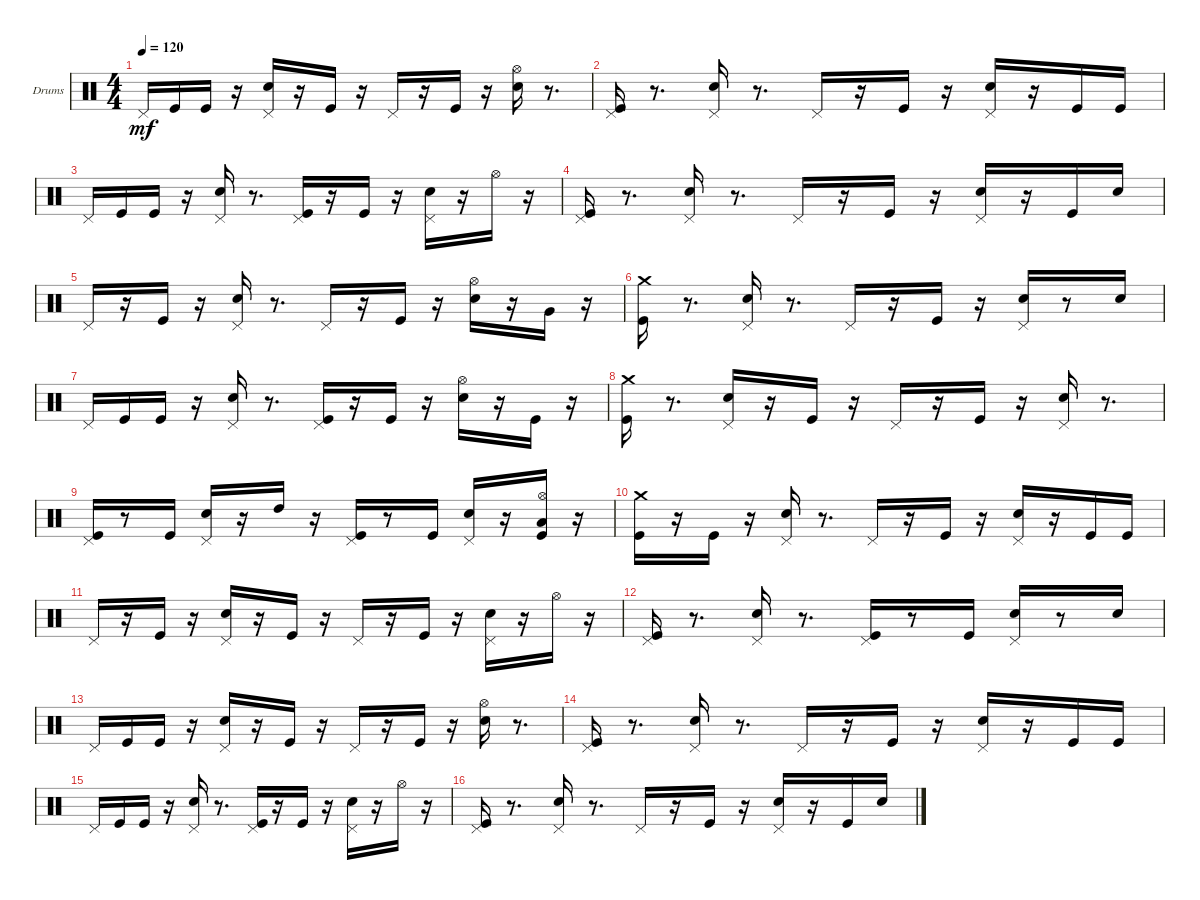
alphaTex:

\bracketExtendMode groupsimilarinstruments
\firstSystemTrackNameOrientation horizontal
\otherSystemsTrackNameOrientation horizontal
\track ("Drumkit" "Drums") {instrument percussion}
\staff {score}
\articulation defaults
\ts (4 4)
\tempo 120
\clef neutral
\ks aminor "Pedal Hi-Hat (hit)".16{dy mf} "Kick (hit)".16 "Kick (hit)".16
r.16 ("Snare (hit) 2" "Pedal Hi-Hat (hit)").16 r.16 "Kick (hit)".16 r.16 "Pedal Hi-Hat (hit)".16 r.16 "Kick (hit)".16 r.16 ("Snare (hit) 2" "Hi-Hat (open)").16 r.8{d} |
("Kick (hit)" "Pedal Hi-Hat (hit)").16 r.8{d} ("Snare (hit) 2" "Pedal Hi-Hat (hit)").16 r.8{d} "Pedal Hi-Hat (hit)".16 r.16 "Kick (hit)".16 r.16 ("Snare (hit) 2" "Pedal Hi-Hat (hit)").16 r.16 "Kick (hit)".16 "Kick (hit)".16 |
"Pedal Hi-Hat (hit)".16 "Kick (hit)".16 "Kick (hit)".16 r.16 ("Snare (hit) 2" "Pedal Hi-Hat (hit)").16 r.8{d} ("Kick (hit)" "Pedal Hi-Hat (hit)").16 r.16 "Kick (hit)".16 r.16 ("Snare (hit) 2" "Pedal Hi-Hat (hit)").16 r.16 "Hi-Hat (open)".16 r.16 |
("Kick (hit)" "Pedal Hi-Hat (hit)").16 r.8{d} ("Snare (hit) 2" "Pedal Hi-Hat (hit)").16 r.8{d} "Pedal Hi-Hat (hit)".16 r.16 "Kick (hit)".16 r.16 ("Snare (hit) 2" "Pedal Hi-Hat (hit)").16 r.16 "Kick (hit)".16 "Snare (hit) 2".16 |
"Pedal Hi-Hat (hit)".16 r.16 "Kick (hit)".16 r.16 ("Snare (hit) 2" "Pedal Hi-Hat (hit)").16 r.8{d} "Pedal Hi-Hat (hit)".16 r.16 "Kick (hit)".16 r.16 ("Snare (hit) 2" "Hi-Hat (open)").16 r.16 "Very Low Tom (hit)".16 r.16 |
("Kick (hit)" "Crash medium (hit)").16 r.8{d} ("Snare (hit) 2" "Pedal Hi-Hat (hit)").16 r.8{d} "Pedal Hi-Hat (hit)".16 r.16 "Kick (hit)".16 r.16 ("Snare (hit) 2" "Pedal Hi-Hat (hit)").16 r.8 "Snare (hit) 2".16 |
"Pedal Hi-Hat (hit)".16 "Kick (hit)".16 "Kick (hit)".16 r.16 ("Snare (hit) 2" "Pedal Hi-Hat (hit)").16 r.8{d} ("Kick (hit)" "Pedal Hi-Hat (hit)").16 r.16 "Kick (hit)".16 r.16 ("Snare (hit) 2" "Hi-Hat (open)").16 r.16 "Kick (hit)".16 r.16 |
("Kick (hit)" "Crash medium (hit)").16 r.8{d} ("Snare (hit) 2" "Pedal Hi-Hat (hit)").16 r.16 "Kick (hit)".16 r.16 "Pedal Hi-Hat (hit)".16 r.16 "Kick (hit)".16 r.16 ("Snare (hit) 2" "Pedal Hi-Hat (hit)").16 r.8{d} |
("Kick (hit)" "Pedal Hi-Hat (hit)").16 r.8 "Kick (hit)".16 ("Snare (hit) 2" "Pedal Hi-Hat (hit)").16 r.16 "High Tom (hit)".16 r.16 ("Kick (hit)" "Pedal Hi-Hat (hit)").16 r.8 "Kick (hit)".16 ("Snare (hit) 2" "Pedal Hi-Hat (hit)").16 r.16 ("Kick (hit)" "Low Tom (hit)" "Hi-Hat (open)").16 r.16 |
("Kick (hit)" "Crash medium (hit)").16 r.16 "Kick (hit)".16 r.16 ("Snare (hit) 2" "Pedal Hi-Hat (hit)").16 r.8{d} "Pedal Hi-Hat (hit)".16 r.16 "Kick (hit)".16 r.16 ("Snare (hit) 2" "Pedal Hi-Hat (hit)").16 r.16 "Kick (hit)".16 "Kick (hit)".16 |
"Pedal Hi-Hat (hit)".16 r.16 "Kick (hit)".16 r.16 ("Snare (hit) 2" "Pedal Hi-Hat (hit)").16 r.16 "Kick (hit)".16 r.16 "Pedal Hi-Hat (hit)".16 r.16 "Kick (hit)".16 r.16 ("Snare (hit) 2" "Pedal Hi-Hat (hit)").16 r.16 "Hi-Hat (open)".16 r.16 |
("Kick (hit)" "Pedal Hi-Hat (hit)").16 r.8{d} ("Snare (hit) 2" "Pedal Hi-Hat (hit)").16 r.8{d} ("Kick (hit)" "Pedal Hi-Hat (hit)").16 r.8 "Kick (hit)".16 ("Snare (hit) 2" "Pedal Hi-Hat (hit)").16 r.8 "Snare (hit) 2".16 |
"Pedal Hi-Hat (hit)".16 "Kick (hit)".16 "Kick (hit)".16 r.16 ("Snare (hit) 2" "Pedal Hi-Hat (hit)").16 r.16 "Kick (hit)".16 r.16 "Pedal Hi-Hat (hit)".16 r.16 "Kick (hit)".16 r.16 ("Snare (hit) 2" "Hi-Hat (open)").16 r.8{d} |
("Kick (hit)" "Pedal Hi-Hat (hit)").16 r.8{d} ("Snare (hit) 2" "Pedal Hi-Hat (hit)").16 r.8{d} "Pedal Hi-Hat (hit)".16 r.16 "Kick (hit)".16 r.16 ("Snare (hit) 2" "Pedal Hi-Hat (hit)").16 r.16 "Kick (hit)".16 "Kick (hit)".16 |
"Pedal Hi-Hat (hit)".16 "Kick (hit)".16 "Kick (hit)".16 r.16 ("Snare (hit) 2" "Pedal Hi-Hat (hit)").16 r.8{d} ("Kick (hit)" "Pedal Hi-Hat (hit)").16 r.16 "Kick (hit)".16 r.16 ("Snare (hit) 2" "Pedal Hi-Hat (hit)").16 r.16 "Hi-Hat (open)".16 r.16 |
("Kick (hit)" "Pedal Hi-Hat (hit)").16 r.8{d} ("Snare (hit) 2" "Pedal Hi-Hat (hit)").16 r.8{d} "Pedal Hi-Hat (hit)".16 r.16 "Kick (hit)".16 r.16 ("Snare (hit) 2" "Pedal Hi-Hat (hit)").16 r.16 "Kick (hit)".16 "Snare (hit) 2".16
